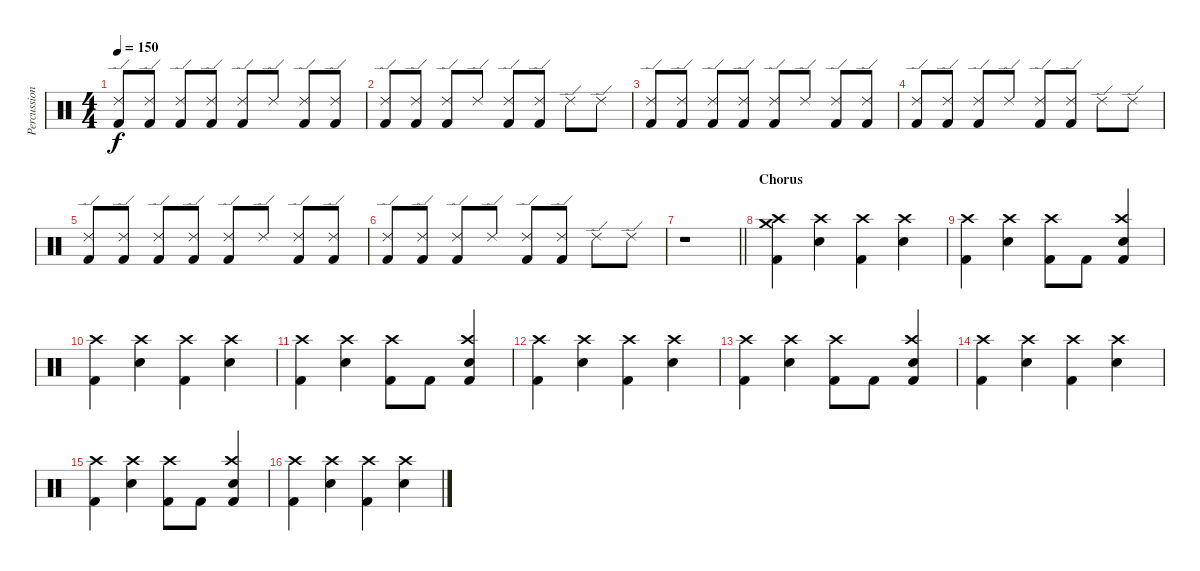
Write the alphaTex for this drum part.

\track ("Percussion" "Percussion") {instrument percussion}
\staff {score}
\articulation defaults
\ts (4 4)
\tempo 150
\clef neutral
\ks c
("Ride (edge) 2" "Kick (hit) 2").8{dy f} ("Ride (edge) 2" "Kick (hit) 2").8 ("Ride (edge) 2" "Kick (hit) 2").8 ("Ride (edge) 2" "Kick (hit) 2").8 ("Ride (edge) 2" "Kick (hit) 2").8 "Ride (edge) 2".8 ("Ride (edge) 2" "Kick (hit) 2").8 ("Ride (edge) 2" "Kick (hit) 2").8 |
("Ride (edge) 2" "Kick (hit) 2").8 ("Ride (edge) 2" "Kick (hit) 2").8 ("Ride (edge) 2" "Kick (hit) 2").8 "Ride (edge) 2".8 ("Ride (edge) 2" "Kick (hit) 2").8 ("Ride (edge) 2" "Kick (hit) 2").8 "Ride (edge) 2".8 "Ride (edge) 2".8 |
("Ride (edge) 2" "Kick (hit) 2").8 ("Ride (edge) 2" "Kick (hit) 2").8 ("Ride (edge) 2" "Kick (hit) 2").8 ("Ride (edge) 2" "Kick (hit) 2").8 ("Ride (edge) 2" "Kick (hit) 2").8 "Ride (edge) 2".8 ("Ride (edge) 2" "Kick (hit) 2").8 ("Ride (edge) 2" "Kick (hit) 2").8 |
("Ride (edge) 2" "Kick (hit) 2").8 ("Ride (edge) 2" "Kick (hit) 2").8 ("Ride (edge) 2" "Kick (hit) 2").8 "Ride (edge) 2".8 ("Ride (edge) 2" "Kick (hit) 2").8 ("Ride (edge) 2" "Kick (hit) 2").8 "Ride (edge) 2".8 "Ride (edge) 2".8 |
("Ride (edge) 2" "Kick (hit) 2").8 ("Ride (edge) 2" "Kick (hit) 2").8 ("Ride (edge) 2" "Kick (hit) 2").8 ("Ride (edge) 2" "Kick (hit) 2").8 ("Ride (edge) 2" "Kick (hit) 2").8 "Ride (edge) 2".8 ("Ride (edge) 2" "Kick (hit) 2").8 ("Ride (edge) 2" "Kick (hit) 2").8 |
("Ride (edge) 2" "Kick (hit) 2").8 ("Ride (edge) 2" "Kick (hit) 2").8 ("Ride (edge) 2" "Kick (hit) 2").8 "Ride (edge) 2".8 ("Ride (edge) 2" "Kick (hit) 2").8 ("Ride (edge) 2" "Kick (hit) 2").8 "Ride (edge) 2".8 "Ride (edge) 2".8 |
\barLineRight lightlight
r.1 |
\section ("" "Chorus")
("Crash high (hit)" "Crash medium (hit)" "Kick (hit) 2").4 ("Crash high (hit)" "Snare (hit) 2").4 ("Crash high (hit)" "Kick (hit) 2").4 ("Crash high (hit)" "Snare (hit) 2").4 |
("Crash high (hit)" "Kick (hit) 2").4 ("Crash high (hit)" "Snare (hit) 2").4 ("Crash high (hit)" "Kick (hit) 2").8 "Kick (hit) 2".8 ("Crash high (hit)" "Snare (hit) 2" "Kick (hit) 2").4 |
("Crash high (hit)" "Kick (hit) 2").4 ("Crash high (hit)" "Snare (hit) 2").4 ("Crash high (hit)" "Kick (hit) 2").4 ("Crash high (hit)" "Snare (hit) 2").4 |
("Crash high (hit)" "Kick (hit) 2").4 ("Crash high (hit)" "Snare (hit) 2").4 ("Crash high (hit)" "Kick (hit) 2").8 "Kick (hit) 2".8 ("Crash high (hit)" "Snare (hit) 2" "Kick (hit) 2").4 |
("Crash high (hit)" "Kick (hit) 2").4 ("Crash high (hit)" "Snare (hit) 2").4 ("Crash high (hit)" "Kick (hit) 2").4 ("Crash high (hit)" "Snare (hit) 2").4 |
("Crash high (hit)" "Kick (hit) 2").4 ("Crash high (hit)" "Snare (hit) 2").4 ("Crash high (hit)" "Kick (hit) 2").8 "Kick (hit) 2".8 ("Crash high (hit)" "Snare (hit) 2" "Kick (hit) 2").4 |
("Crash high (hit)" "Kick (hit) 2").4 ("Crash high (hit)" "Snare (hit) 2").4 ("Crash high (hit)" "Kick (hit) 2").4 ("Crash high (hit)" "Snare (hit) 2").4 |
("Crash high (hit)" "Kick (hit) 2").4 ("Crash high (hit)" "Snare (hit) 2").4 ("Crash high (hit)" "Kick (hit) 2").8 "Kick (hit) 2".8 ("Crash high (hit)" "Snare (hit) 2" "Kick (hit) 2").4 |
("Crash high (hit)" "Kick (hit) 2").4 ("Crash high (hit)" "Snare (hit) 2").4 ("Crash high (hit)" "Kick (hit) 2").4 ("Crash high (hit)" "Snare (hit) 2").4
